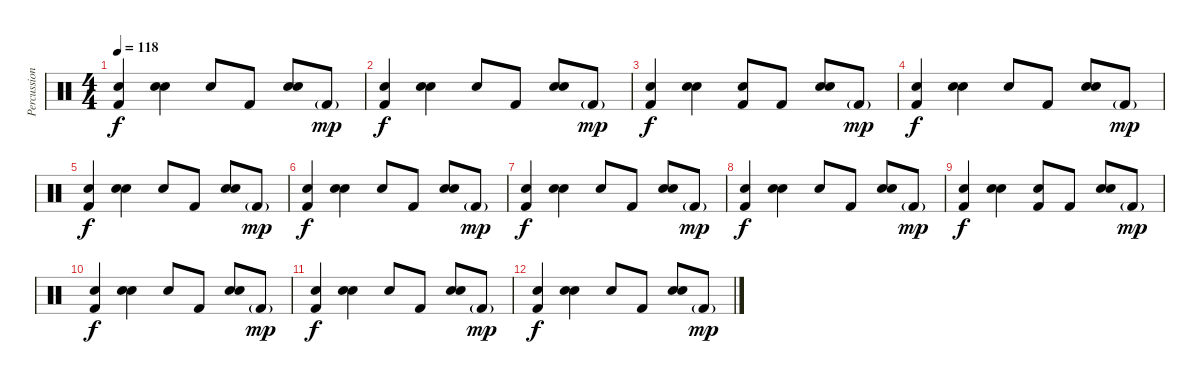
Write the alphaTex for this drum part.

\track ("Percussion" "Percussion") {instrument percussion}
\staff {score}
\articulation defaults
\ts (4 4)
\tempo 118
\clef neutral
\ks c
("Hand Clap (hit)" "Kick (hit) 2").4{dy f} ("Hand Clap (hit)" "Snare (hit) 2").4 "Hand Clap (hit)".8 "Kick (hit) 2".8 ("Hand Clap (hit)" "Snare (hit) 2").8 "Kick (hit) 2"{g}.8{dy mp} |
("Hand Clap (hit)" "Kick (hit) 2").4{dy f} ("Hand Clap (hit)" "Snare (hit) 2").4 "Hand Clap (hit)".8 "Kick (hit) 2".8 ("Hand Clap (hit)" "Snare (hit) 2").8 "Kick (hit) 2"{g}.8{dy mp} |
("Hand Clap (hit)" "Kick (hit) 2").4{dy f} ("Hand Clap (hit)" "Snare (hit) 2").4 ("Hand Clap (hit)" "Kick (hit) 2").8 "Kick (hit) 2".8 ("Hand Clap (hit)" "Snare (hit) 2").8 "Kick (hit) 2"{g}.8{dy mp} |
("Hand Clap (hit)" "Kick (hit) 2").4{dy f} ("Hand Clap (hit)" "Snare (hit) 2").4 "Hand Clap (hit)".8 "Kick (hit) 2".8 ("Hand Clap (hit)" "Snare (hit) 2").8 "Kick (hit) 2"{g}.8{dy mp} |
("Hand Clap (hit)" "Kick (hit) 2").4{dy f} ("Hand Clap (hit)" "Snare (hit) 2").4 "Hand Clap (hit)".8 "Kick (hit) 2".8 ("Hand Clap (hit)" "Snare (hit) 2").8 "Kick (hit) 2"{g}.8{dy mp} |
("Hand Clap (hit)" "Kick (hit) 2").4{dy f} ("Hand Clap (hit)" "Snare (hit) 2").4 "Hand Clap (hit)".8 "Kick (hit) 2".8 ("Hand Clap (hit)" "Snare (hit) 2").8 "Kick (hit) 2"{g}.8{dy mp} |
("Hand Clap (hit)" "Kick (hit) 2").4{dy f} ("Hand Clap (hit)" "Snare (hit) 2").4 "Hand Clap (hit)".8 "Kick (hit) 2".8 ("Hand Clap (hit)" "Snare (hit) 2").8 "Kick (hit) 2"{g}.8{dy mp} |
("Hand Clap (hit)" "Kick (hit) 2").4{dy f} ("Hand Clap (hit)" "Snare (hit) 2").4 "Hand Clap (hit)".8 "Kick (hit) 2".8 ("Hand Clap (hit)" "Snare (hit) 2").8 "Kick (hit) 2"{g}.8{dy mp} |
("Hand Clap (hit)" "Kick (hit) 2").4{dy f} ("Hand Clap (hit)" "Snare (hit) 2").4 ("Hand Clap (hit)" "Kick (hit) 2").8 "Kick (hit) 2".8 ("Hand Clap (hit)" "Snare (hit) 2").8 "Kick (hit) 2"{g}.8{dy mp} |
("Hand Clap (hit)" "Kick (hit) 2").4{dy f} ("Hand Clap (hit)" "Snare (hit) 2").4 "Hand Clap (hit)".8 "Kick (hit) 2".8 ("Hand Clap (hit)" "Snare (hit) 2").8 "Kick (hit) 2"{g}.8{dy mp} |
("Hand Clap (hit)" "Kick (hit) 2").4{dy f} ("Hand Clap (hit)" "Snare (hit) 2").4 "Hand Clap (hit)".8 "Kick (hit) 2".8 ("Hand Clap (hit)" "Snare (hit) 2").8 "Kick (hit) 2"{g}.8{dy mp} |
("Hand Clap (hit)" "Kick (hit) 2").4{dy f} ("Hand Clap (hit)" "Snare (hit) 2").4 "Hand Clap (hit)".8 "Kick (hit) 2".8 ("Hand Clap (hit)" "Snare (hit) 2").8 "Kick (hit) 2"{g}.8{dy mp}
